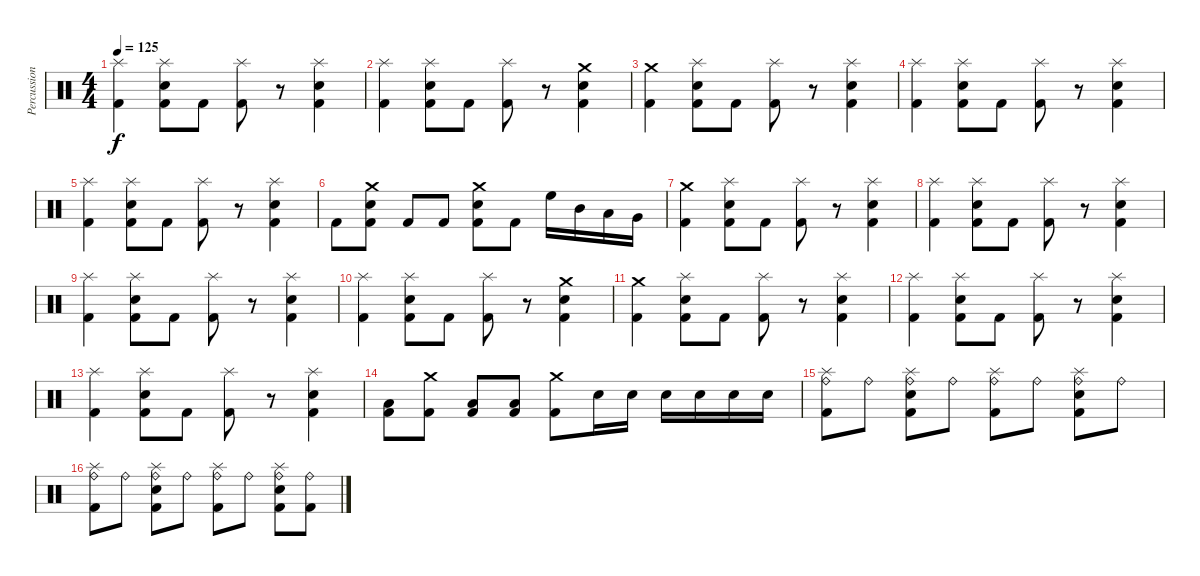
\track ("Percussion" "Percussion") {instrument percussion}
\staff {score}
\articulation defaults
\ts (4 4)
\tempo 125
\clef neutral
\ks c
("Splash (hit)" "Kick (hit) 2").4{dy f} ("Splash (hit)" "Snare (hit) 2" "Kick (hit) 2").8 "Kick (hit) 2".8 ("Splash (hit)" "Kick (hit) 2").8 r.8 ("Splash (hit)" "Snare (hit) 2" "Kick (hit) 2").4 |
("Splash (hit)" "Kick (hit) 2").4 ("Splash (hit)" "Snare (hit) 2" "Kick (hit) 2").8 "Kick (hit) 2".8 ("Splash (hit)" "Kick (hit) 2").8 r.8 ("Crash medium (hit)" "Snare (hit) 2" "Kick (hit) 2").4 |
("Crash medium (hit)" "Kick (hit) 2").4 ("Splash (hit)" "Snare (hit) 2" "Kick (hit) 2").8 "Kick (hit) 2".8 ("Splash (hit)" "Kick (hit) 2").8 r.8 ("Splash (hit)" "Snare (hit) 2" "Kick (hit) 2").4 |
("Splash (hit)" "Kick (hit) 2").4 ("Splash (hit)" "Snare (hit) 2" "Kick (hit) 2").8 "Kick (hit) 2".8 ("Splash (hit)" "Kick (hit) 2").8 r.8 ("Splash (hit)" "Snare (hit) 2" "Kick (hit) 2").4 |
("Splash (hit)" "Kick (hit) 2").4 ("Splash (hit)" "Snare (hit) 2" "Kick (hit) 2").8 "Kick (hit) 2".8 ("Splash (hit)" "Kick (hit) 2").8 r.8 ("Splash (hit)" "Snare (hit) 2" "Kick (hit) 2").4 |
"Kick (hit) 2".8 ("Crash medium (hit)" "Snare (hit) 2" "Kick (hit) 2").8 "Kick (hit) 2".8 "Kick (hit) 2".8 ("Crash medium (hit)" "Snare (hit) 2" "Kick (hit) 2").8 "Kick (hit) 2".8 "High Floor Tom (hit)".16 "Mid Tom (hit)".16 "Low Tom (hit)".16 "Very Low Tom (hit)".16 |
("Crash medium (hit)" "Kick (hit) 2").4 ("Splash (hit)" "Snare (hit) 2" "Kick (hit) 2").8 "Kick (hit) 2".8 ("Splash (hit)" "Kick (hit) 2").8 r.8 ("Splash (hit)" "Snare (hit) 2" "Kick (hit) 2").4 |
("Splash (hit)" "Kick (hit) 2").4 ("Splash (hit)" "Snare (hit) 2" "Kick (hit) 2").8 "Kick (hit) 2".8 ("Splash (hit)" "Kick (hit) 2").8 r.8 ("Splash (hit)" "Snare (hit) 2" "Kick (hit) 2").4 |
("Splash (hit)" "Kick (hit) 2").4 ("Splash (hit)" "Snare (hit) 2" "Kick (hit) 2").8 "Kick (hit) 2".8 ("Splash (hit)" "Kick (hit) 2").8 r.8 ("Splash (hit)" "Snare (hit) 2" "Kick (hit) 2").4 |
("Splash (hit)" "Kick (hit) 2").4 ("Splash (hit)" "Snare (hit) 2" "Kick (hit) 2").8 "Kick (hit) 2".8 ("Splash (hit)" "Kick (hit) 2").8 r.8 ("Crash medium (hit)" "Snare (hit) 2" "Kick (hit) 2").4 |
("Crash medium (hit)" "Kick (hit) 2").4 ("Splash (hit)" "Snare (hit) 2" "Kick (hit) 2").8 "Kick (hit) 2".8 ("Splash (hit)" "Kick (hit) 2").8 r.8 ("Splash (hit)" "Snare (hit) 2" "Kick (hit) 2").4 |
("Splash (hit)" "Kick (hit) 2").4 ("Splash (hit)" "Snare (hit) 2" "Kick (hit) 2").8 "Kick (hit) 2".8 ("Splash (hit)" "Kick (hit) 2").8 r.8 ("Splash (hit)" "Snare (hit) 2" "Kick (hit) 2").4 |
("Splash (hit)" "Kick (hit) 2").4 ("Splash (hit)" "Snare (hit) 2" "Kick (hit) 2").8 "Kick (hit) 2".8 ("Splash (hit)" "Kick (hit) 2").8 r.8 ("Splash (hit)" "Snare (hit) 2" "Kick (hit) 2").4 |
("Low Floor Tom (hit)" "Kick (hit) 2").8 ("Crash medium (hit)" "Kick (hit) 2").8 ("Low Floor Tom (hit)" "Kick (hit) 2").8 ("Low Floor Tom (hit)" "Kick (hit) 2").8 ("Crash medium (hit)" "Kick (hit) 2").8 "Snare (hit) 2".16 "Snare (hit) 2".16 "Snare (hit) 2".16 "Snare (hit) 2".16 "Snare (hit) 2".16 "Snare (hit) 2".16 |
("Splash (hit)" "Ride (bell)" "Kick (hit) 2").8 "Ride (bell)".8 ("Splash (hit)" "Ride (bell)" "Snare (hit) 2" "Kick (hit) 2").8 "Ride (bell)".8 ("Splash (hit)" "Ride (bell)" "Kick (hit) 2").8 "Ride (bell)".8 ("Splash (hit)" "Ride (bell)" "Snare (hit) 2" "Kick (hit) 2").8 "Ride (bell)".8 |
("Splash (hit)" "Ride (bell)" "Kick (hit) 2").8 "Ride (bell)".8 ("Splash (hit)" "Ride (bell)" "Snare (hit) 2" "Kick (hit) 2").8 "Ride (bell)".8 ("Splash (hit)" "Ride (bell)" "Kick (hit) 2").8 "Ride (bell)".8 ("Splash (hit)" "Ride (bell)" "Snare (hit) 2" "Kick (hit) 2").8 ("Ride (bell)" "Kick (hit) 2").8
